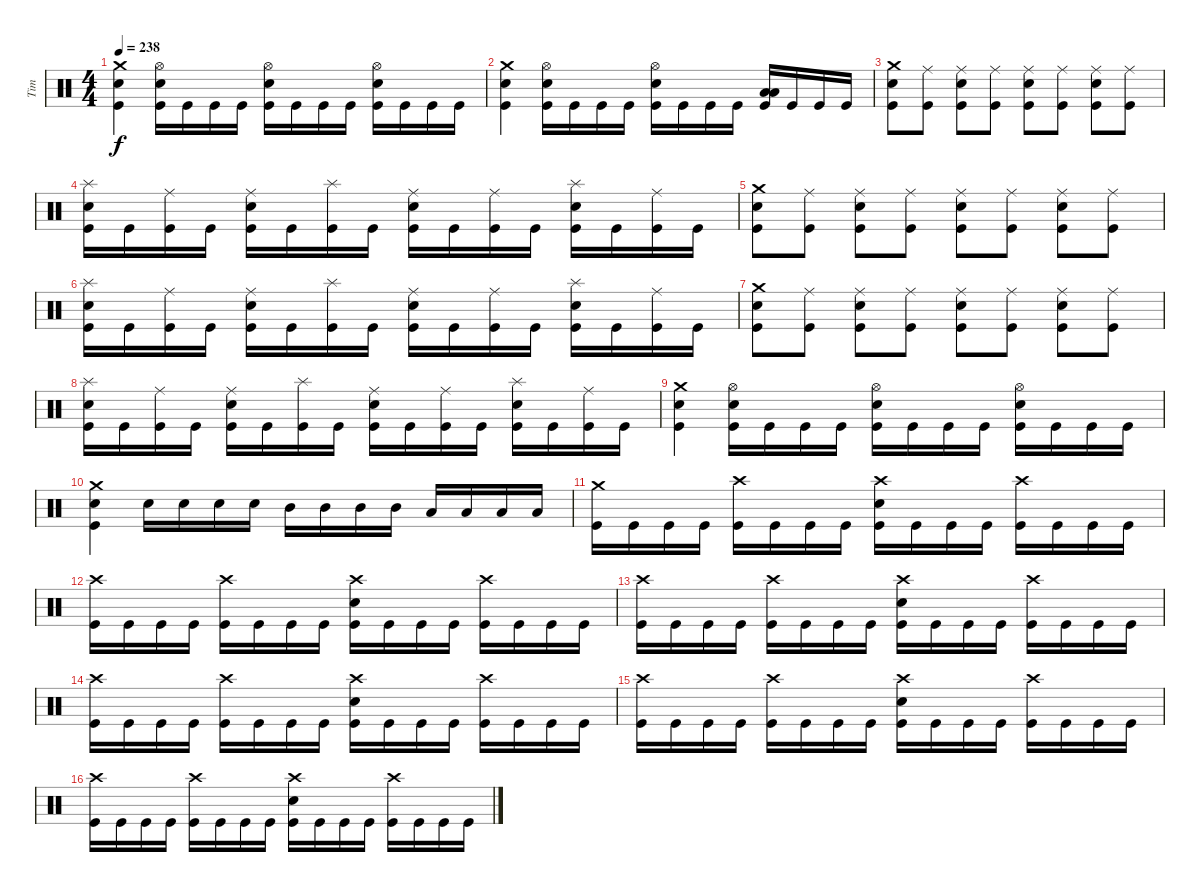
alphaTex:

\track ("Tim" "Tim") {instrument percussion}
\staff {score}
\articulation defaults
\ts (4 4)
\tempo 238
\clef neutral
\ks c
("Crash medium (hit)" "Electric Snare (hit)" "Kick (hit)").4{dy f} ("Hi-Hat (open)" "Electric Snare (hit)" "Kick (hit)").16 "Kick (hit)".16 "Kick (hit)".16 "Kick (hit)".16 ("Hi-Hat (open)" "Electric Snare (hit)" "Kick (hit)").16 "Kick (hit)".16 "Kick (hit)".16 "Kick (hit)".16 ("Hi-Hat (open)" "Electric Snare (hit)" "Kick (hit)").16 "Kick (hit)".16 "Kick (hit)".16 "Kick (hit)".16 |
("Crash medium (hit)" "Electric Snare (hit)" "Kick (hit)").4 ("Hi-Hat (open)" "Electric Snare (hit)" "Kick (hit)").16 "Kick (hit)".16 "Kick (hit)".16 "Kick (hit)".16 ("Hi-Hat (open)" "Electric Snare (hit)" "Kick (hit)").16 "Kick (hit)".16 "Kick (hit)".16 "Kick (hit)".16 ("Low Floor Tom (hit)" "Low Floor Tom (hit)" "Kick (hit)").16 "Kick (hit)".16 "Kick (hit)".16 "Kick (hit)".16 |
("Crash medium (hit)" "Electric Snare (hit)" "Kick (hit)").8 ("Ride (middle)" "Kick (hit)").8 ("Ride (middle)" "Electric Snare (hit)" "Kick (hit)").8 ("Ride (middle)" "Kick (hit)").8 ("Ride (middle)" "Electric Snare (hit)" "Kick (hit)").8 ("Ride (middle)" "Kick (hit)").8 ("Ride (middle)" "Electric Snare (hit)" "Kick (hit)").8 ("Ride (middle)" "Kick (hit)").8 |
("Splash (hit)" "Electric Snare (hit)" "Kick (hit)").16 "Kick (hit)".16 ("Ride (middle)" "Kick (hit)").16 "Kick (hit)".16 ("Ride (middle)" "Electric Snare (hit)" "Kick (hit)").16 "Kick (hit)".16 ("Splash (hit)" "Kick (hit)").16 "Kick (hit)".16 ("Ride (middle)" "Electric Snare (hit)" "Kick (hit)").16 "Kick (hit)".16 ("Ride (middle)" "Kick (hit)").16 "Kick (hit)".16 ("Splash (hit)" "Electric Snare (hit)" "Kick (hit)").16 "Kick (hit)".16 ("Ride (middle)" "Kick (hit)").16 "Kick (hit)".16 |
("Crash medium (hit)" "Electric Snare (hit)" "Kick (hit)").8 ("Ride (middle)" "Kick (hit)").8 ("Ride (middle)" "Electric Snare (hit)" "Kick (hit)").8 ("Ride (middle)" "Kick (hit)").8 ("Ride (middle)" "Electric Snare (hit)" "Kick (hit)").8 ("Ride (middle)" "Kick (hit)").8 ("Ride (middle)" "Electric Snare (hit)" "Kick (hit)").8 ("Ride (middle)" "Kick (hit)").8 |
("Splash (hit)" "Electric Snare (hit)" "Kick (hit)").16 "Kick (hit)".16 ("Ride (middle)" "Kick (hit)").16 "Kick (hit)".16 ("Ride (middle)" "Electric Snare (hit)" "Kick (hit)").16 "Kick (hit)".16 ("Splash (hit)" "Kick (hit)").16 "Kick (hit)".16 ("Ride (middle)" "Electric Snare (hit)" "Kick (hit)").16 "Kick (hit)".16 ("Ride (middle)" "Kick (hit)").16 "Kick (hit)".16 ("Splash (hit)" "Electric Snare (hit)" "Kick (hit)").16 "Kick (hit)".16 ("Ride (middle)" "Kick (hit)").16 "Kick (hit)".16 |
("Crash medium (hit)" "Electric Snare (hit)" "Kick (hit)").8 ("Ride (middle)" "Kick (hit)").8 ("Ride (middle)" "Electric Snare (hit)" "Kick (hit)").8 ("Ride (middle)" "Kick (hit)").8 ("Ride (middle)" "Electric Snare (hit)" "Kick (hit)").8 ("Ride (middle)" "Kick (hit)").8 ("Ride (middle)" "Electric Snare (hit)" "Kick (hit)").8 ("Ride (middle)" "Kick (hit)").8 |
("Splash (hit)" "Electric Snare (hit)" "Kick (hit)").16 "Kick (hit)".16 ("Ride (middle)" "Kick (hit)").16 "Kick (hit)".16 ("Ride (middle)" "Electric Snare (hit)" "Kick (hit)").16 "Kick (hit)".16 ("Splash (hit)" "Kick (hit)").16 "Kick (hit)".16 ("Ride (middle)" "Electric Snare (hit)" "Kick (hit)").16 "Kick (hit)".16 ("Ride (middle)" "Kick (hit)").16 "Kick (hit)".16 ("Splash (hit)" "Electric Snare (hit)" "Kick (hit)").16 "Kick (hit)".16 ("Ride (middle)" "Kick (hit)").16 "Kick (hit)".16 |
("Crash medium (hit)" "Electric Snare (hit)" "Kick (hit)").4 ("Hi-Hat (open)" "Electric Snare (hit)" "Kick (hit)").16 "Kick (hit)".16 "Kick (hit)".16 "Kick (hit)".16 ("Hi-Hat (open)" "Electric Snare (hit)" "Kick (hit)").16 "Kick (hit)".16 "Kick (hit)".16 "Kick (hit)".16 ("Hi-Hat (open)" "Electric Snare (hit)" "Kick (hit)").16 "Kick (hit)".16 "Kick (hit)".16 "Kick (hit)".16 |
("Crash medium (hit)" "Electric Snare (hit)" "Kick (hit)").4 "Electric Snare (hit)".16 "Electric Snare (hit)".16 "Electric Snare (hit)".16 "Electric Snare (hit)".16 "Mid Tom (hit)".16 "Mid Tom (hit)".16 "Mid Tom (hit)".16 "Mid Tom (hit)".16 "Low Tom (hit)".16 "Low Tom (hit)".16 "Low Tom (hit)".16 "Low Tom (hit)".16 |
("Crash medium (hit)" "Kick (hit)").16 "Kick (hit)".16 "Kick (hit)".16 "Kick (hit)".16 ("Crash high (hit)" "Kick (hit)").16 "Kick (hit)".16 "Kick (hit)".16 "Kick (hit)".16 ("Crash high (hit)" "Electric Snare (hit)" "Kick (hit)").16 "Kick (hit)".16 "Kick (hit)".16 "Kick (hit)".16 ("Crash high (hit)" "Kick (hit)").16 "Kick (hit)".16 "Kick (hit)".16 "Kick (hit)".16 |
("Crash high (hit)" "Kick (hit)").16 "Kick (hit)".16 "Kick (hit)".16 "Kick (hit)".16 ("Crash high (hit)" "Kick (hit)").16 "Kick (hit)".16 "Kick (hit)".16 "Kick (hit)".16 ("Crash high (hit)" "Electric Snare (hit)" "Kick (hit)").16 "Kick (hit)".16 "Kick (hit)".16 "Kick (hit)".16 ("Crash high (hit)" "Kick (hit)").16 "Kick (hit)".16 "Kick (hit)".16 "Kick (hit)".16 |
("Crash high (hit)" "Kick (hit)").16 "Kick (hit)".16 "Kick (hit)".16 "Kick (hit)".16 ("Crash high (hit)" "Kick (hit)").16 "Kick (hit)".16 "Kick (hit)".16 "Kick (hit)".16 ("Crash high (hit)" "Electric Snare (hit)" "Kick (hit)").16 "Kick (hit)".16 "Kick (hit)".16 "Kick (hit)".16 ("Crash high (hit)" "Kick (hit)").16 "Kick (hit)".16 "Kick (hit)".16 "Kick (hit)".16 |
("Crash high (hit)" "Kick (hit)").16 "Kick (hit)".16 "Kick (hit)".16 "Kick (hit)".16 ("Crash high (hit)" "Kick (hit)").16 "Kick (hit)".16 "Kick (hit)".16 "Kick (hit)".16 ("Crash high (hit)" "Electric Snare (hit)" "Kick (hit)").16 "Kick (hit)".16 "Kick (hit)".16 "Kick (hit)".16 ("Crash high (hit)" "Kick (hit)").16 "Kick (hit)".16 "Kick (hit)".16 "Kick (hit)".16 |
("Crash high (hit)" "Kick (hit)").16 "Kick (hit)".16 "Kick (hit)".16 "Kick (hit)".16 ("Crash high (hit)" "Kick (hit)").16 "Kick (hit)".16 "Kick (hit)".16 "Kick (hit)".16 ("Crash high (hit)" "Electric Snare (hit)" "Kick (hit)").16 "Kick (hit)".16 "Kick (hit)".16 "Kick (hit)".16 ("Crash high (hit)" "Kick (hit)").16 "Kick (hit)".16 "Kick (hit)".16 "Kick (hit)".16 |
("Crash high (hit)" "Kick (hit)").16 "Kick (hit)".16 "Kick (hit)".16 "Kick (hit)".16 ("Crash high (hit)" "Kick (hit)").16 "Kick (hit)".16 "Kick (hit)".16 "Kick (hit)".16 ("Crash high (hit)" "Electric Snare (hit)" "Kick (hit)").16 "Kick (hit)".16 "Kick (hit)".16 "Kick (hit)".16 ("Crash high (hit)" "Kick (hit)").16 "Kick (hit)".16 "Kick (hit)".16 "Kick (hit)".16
